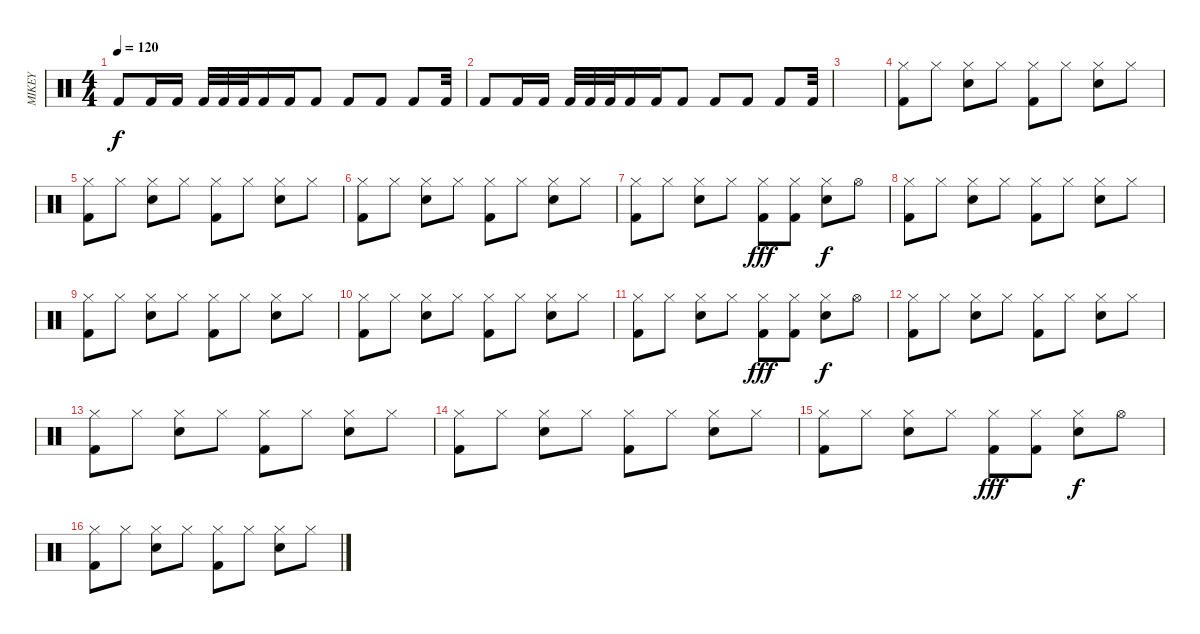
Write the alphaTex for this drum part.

\track ("MIKEY" "MIKEY") {instrument percussion}
\staff {score}
\articulation defaults
\ts (4 4)
\tempo 120
\clef neutral
\ks c "Kick (hit) 2".8{dy f} "Kick (hit) 2".16 "Kick (hit) 2".16 "Kick (hit) 2".32 "Kick (hit) 2".32 "Kick (hit) 2".32 "Kick (hit) 2".16 "Kick (hit) 2".16 "Kick (hit) 2".8 "Kick (hit) 2".8 "Kick (hit) 2".8 "Kick (hit) 2".8 "Kick (hit) 2".32
|
"Kick (hit) 2".8 "Kick (hit) 2".16 "Kick (hit) 2".16 "Kick (hit) 2".32 "Kick (hit) 2".32 "Kick (hit) 2".32 "Kick (hit) 2".16 "Kick (hit) 2".16 "Kick (hit) 2".8 "Kick (hit) 2".8 "Kick (hit) 2".8 "Kick (hit) 2".8 "Kick (hit) 2".32 |
|
("Hi-Hat (closed)" "Kick (hit) 2").8 "Hi-Hat (closed)".8 ("Hi-Hat (closed)" "Snare (hit) 2").8 "Hi-Hat (closed)".8 ("Hi-Hat (closed)" "Kick (hit) 2").8 "Hi-Hat (closed)".8 ("Hi-Hat (closed)" "Snare (hit) 2").8 "Hi-Hat (closed)".8 |
("Hi-Hat (closed)" "Kick (hit) 2").8 "Hi-Hat (closed)".8 ("Hi-Hat (closed)" "Snare (hit) 2").8 "Hi-Hat (closed)".8 ("Hi-Hat (closed)" "Kick (hit) 2").8 "Hi-Hat (closed)".8 ("Hi-Hat (closed)" "Snare (hit) 2").8 "Hi-Hat (closed)".8 |
("Hi-Hat (closed)" "Kick (hit) 2").8 "Hi-Hat (closed)".8 ("Hi-Hat (closed)" "Snare (hit) 2").8 "Hi-Hat (closed)".8 ("Hi-Hat (closed)" "Kick (hit) 2").8 "Hi-Hat (closed)".8 ("Hi-Hat (closed)" "Snare (hit) 2").8 "Hi-Hat (closed)".8 |
("Hi-Hat (closed)" "Kick (hit) 2").8 "Hi-Hat (closed)".8 ("Hi-Hat (closed)" "Snare (hit) 2").8 "Hi-Hat (closed)".8 ("Hi-Hat (closed)" "Kick (hit) 2").8{dy fff} ("Hi-Hat (closed)" "Kick (hit) 2").8 ("Hi-Hat (closed)" "Snare (hit) 2").8{dy f} "Hi-Hat (open)".8 |
("Hi-Hat (closed)" "Kick (hit) 2").8 "Hi-Hat (closed)".8 ("Hi-Hat (closed)" "Snare (hit) 2").8 "Hi-Hat (closed)".8 ("Hi-Hat (closed)" "Kick (hit) 2").8 "Hi-Hat (closed)".8 ("Hi-Hat (closed)" "Snare (hit) 2").8 "Hi-Hat (closed)".8 |
("Hi-Hat (closed)" "Kick (hit) 2").8 "Hi-Hat (closed)".8 ("Hi-Hat (closed)" "Snare (hit) 2").8 "Hi-Hat (closed)".8 ("Hi-Hat (closed)" "Kick (hit) 2").8 "Hi-Hat (closed)".8 ("Hi-Hat (closed)" "Snare (hit) 2").8 "Hi-Hat (closed)".8 |
("Hi-Hat (closed)" "Kick (hit) 2").8 "Hi-Hat (closed)".8 ("Hi-Hat (closed)" "Snare (hit) 2").8 "Hi-Hat (closed)".8 ("Hi-Hat (closed)" "Kick (hit) 2").8 "Hi-Hat (closed)".8 ("Hi-Hat (closed)" "Snare (hit) 2").8 "Hi-Hat (closed)".8 |
("Hi-Hat (closed)" "Kick (hit) 2").8 "Hi-Hat (closed)".8 ("Hi-Hat (closed)" "Snare (hit) 2").8 "Hi-Hat (closed)".8 ("Hi-Hat (closed)" "Kick (hit) 2").8{dy fff} ("Hi-Hat (closed)" "Kick (hit) 2").8 ("Hi-Hat (closed)" "Snare (hit) 2").8{dy f} "Hi-Hat (open)".8 |
("Hi-Hat (closed)" "Kick (hit) 2").8 "Hi-Hat (closed)".8 ("Hi-Hat (closed)" "Snare (hit) 2").8 "Hi-Hat (closed)".8 ("Hi-Hat (closed)" "Kick (hit) 2").8 "Hi-Hat (closed)".8 ("Hi-Hat (closed)" "Snare (hit) 2").8 "Hi-Hat (closed)".8 |
("Hi-Hat (closed)" "Kick (hit) 2").8 "Hi-Hat (closed)".8 ("Hi-Hat (closed)" "Snare (hit) 2").8 "Hi-Hat (closed)".8 ("Hi-Hat (closed)" "Kick (hit) 2").8 "Hi-Hat (closed)".8 ("Hi-Hat (closed)" "Snare (hit) 2").8 "Hi-Hat (closed)".8 |
("Hi-Hat (closed)" "Kick (hit) 2").8 "Hi-Hat (closed)".8 ("Hi-Hat (closed)" "Snare (hit) 2").8 "Hi-Hat (closed)".8 ("Hi-Hat (closed)" "Kick (hit) 2").8 "Hi-Hat (closed)".8 ("Hi-Hat (closed)" "Snare (hit) 2").8 "Hi-Hat (closed)".8 |
("Hi-Hat (closed)" "Kick (hit) 2").8 "Hi-Hat (closed)".8 ("Hi-Hat (closed)" "Snare (hit) 2").8 "Hi-Hat (closed)".8 ("Hi-Hat (closed)" "Kick (hit) 2").8{dy fff} ("Hi-Hat (closed)" "Kick (hit) 2").8 ("Hi-Hat (closed)" "Snare (hit) 2").8{dy f} "Hi-Hat (open)".8 |
("Hi-Hat (closed)" "Kick (hit) 2").8 "Hi-Hat (closed)".8 ("Hi-Hat (closed)" "Snare (hit) 2").8 "Hi-Hat (closed)".8 ("Hi-Hat (closed)" "Kick (hit) 2").8 "Hi-Hat (closed)".8 ("Hi-Hat (closed)" "Snare (hit) 2").8 "Hi-Hat (closed)".8
